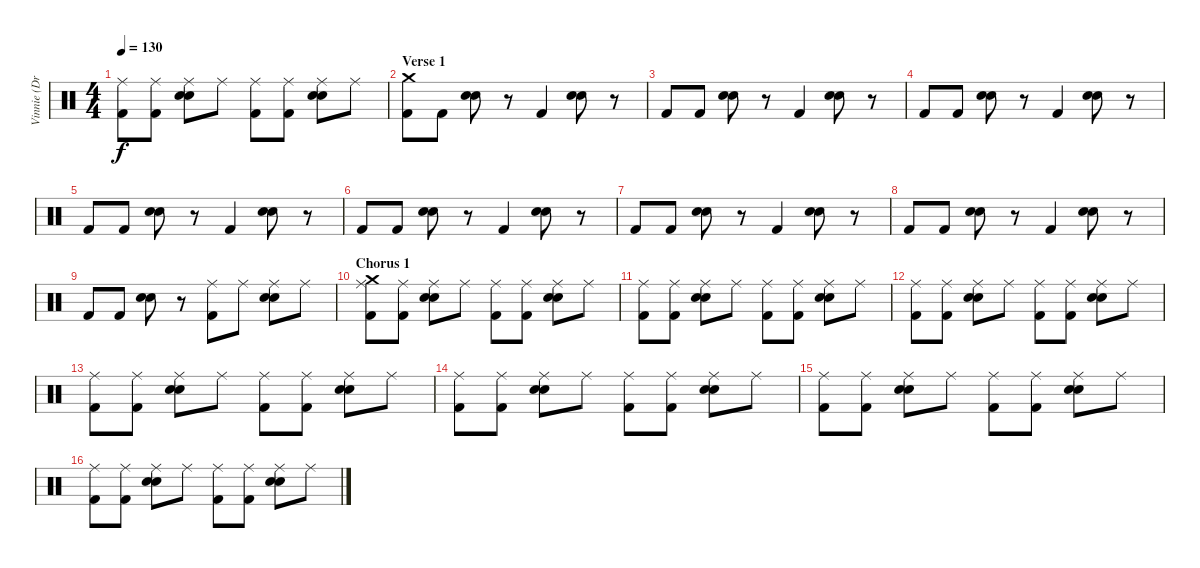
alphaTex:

\track ("Vinnie (Drums)" "Vinnie (Dr") {instrument percussion}
\staff {score}
\articulation defaults
\ts (4 4)
\tempo 130
\clef neutral
\ks c
("Kick (hit) 2" "Ride (middle)").8{dy f} ("Kick (hit) 2" "Ride (middle)").8 ("Snare (hit) 2" "Electric Snare (hit)" "Ride (middle)").8 "Ride (middle)".8 ("Kick (hit) 2" "Ride (middle)").8 ("Kick (hit) 2" "Ride (middle)").8 ("Snare (hit) 2" "Electric Snare (hit)" "Ride (middle)").8 "Ride (middle)".8 |
\section ("" "Verse 1")
("Kick (hit) 2" "Crash medium (hit)").8 "Kick (hit) 2".8 ("Snare (hit) 2" "Electric Snare (hit)").8 r.8 "Kick (hit) 2".4 ("Snare (hit) 2" "Electric Snare (hit)").8 r.8 |
"Kick (hit) 2".8 "Kick (hit) 2".8 ("Snare (hit) 2" "Electric Snare (hit)").8 r.8 "Kick (hit) 2".4 ("Snare (hit) 2" "Electric Snare (hit)").8 r.8 |
"Kick (hit) 2".8 "Kick (hit) 2".8 ("Snare (hit) 2" "Electric Snare (hit)").8 r.8 "Kick (hit) 2".4 ("Snare (hit) 2" "Electric Snare (hit)").8 r.8 |
"Kick (hit) 2".8 "Kick (hit) 2".8 ("Snare (hit) 2" "Electric Snare (hit)").8 r.8 "Kick (hit) 2".4 ("Snare (hit) 2" "Electric Snare (hit)").8 r.8 |
"Kick (hit) 2".8 "Kick (hit) 2".8 ("Snare (hit) 2" "Electric Snare (hit)").8 r.8 "Kick (hit) 2".4 ("Snare (hit) 2" "Electric Snare (hit)").8 r.8 |
"Kick (hit) 2".8 "Kick (hit) 2".8 ("Snare (hit) 2" "Electric Snare (hit)").8 r.8 "Kick (hit) 2".4 ("Snare (hit) 2" "Electric Snare (hit)").8 r.8 |
"Kick (hit) 2".8 "Kick (hit) 2".8 ("Snare (hit) 2" "Electric Snare (hit)").8 r.8 "Kick (hit) 2".4 ("Snare (hit) 2" "Electric Snare (hit)").8 r.8 |
"Kick (hit) 2".8 "Kick (hit) 2".8 ("Snare (hit) 2" "Electric Snare (hit)").8 r.8 ("Kick (hit) 2" "Ride (middle)").8 "Ride (middle)".8 ("Snare (hit) 2" "Electric Snare (hit)" "Ride (middle)").8 "Ride (middle)".8 |
\section ("" "Chorus 1")
("Kick (hit) 2" "Ride (middle)" "Crash medium (hit)").8 ("Kick (hit) 2" "Ride (middle)").8 ("Snare (hit) 2" "Electric Snare (hit)" "Ride (middle)").8 "Ride (middle)".8 ("Kick (hit) 2" "Ride (middle)").8 ("Kick (hit) 2" "Ride (middle)").8 ("Snare (hit) 2" "Electric Snare (hit)" "Ride (middle)").8 "Ride (middle)".8 |
("Kick (hit) 2" "Ride (middle)").8 ("Kick (hit) 2" "Ride (middle)").8 ("Snare (hit) 2" "Electric Snare (hit)" "Ride (middle)").8 "Ride (middle)".8 ("Kick (hit) 2" "Ride (middle)").8 ("Kick (hit) 2" "Ride (middle)").8 ("Snare (hit) 2" "Electric Snare (hit)" "Ride (middle)").8 "Ride (middle)".8 |
("Kick (hit) 2" "Ride (middle)").8 ("Kick (hit) 2" "Ride (middle)").8 ("Snare (hit) 2" "Electric Snare (hit)" "Ride (middle)").8 "Ride (middle)".8 ("Kick (hit) 2" "Ride (middle)").8 ("Kick (hit) 2" "Ride (middle)").8 ("Snare (hit) 2" "Electric Snare (hit)" "Ride (middle)").8 "Ride (middle)".8 |
("Kick (hit) 2" "Ride (middle)").8 ("Kick (hit) 2" "Ride (middle)").8 ("Snare (hit) 2" "Electric Snare (hit)" "Ride (middle)").8 "Ride (middle)".8 ("Kick (hit) 2" "Ride (middle)").8 ("Kick (hit) 2" "Ride (middle)").8 ("Snare (hit) 2" "Electric Snare (hit)" "Ride (middle)").8 "Ride (middle)".8 |
("Kick (hit) 2" "Ride (middle)").8 ("Kick (hit) 2" "Ride (middle)").8 ("Snare (hit) 2" "Electric Snare (hit)" "Ride (middle)").8 "Ride (middle)".8 ("Kick (hit) 2" "Ride (middle)").8 ("Kick (hit) 2" "Ride (middle)").8 ("Snare (hit) 2" "Electric Snare (hit)" "Ride (middle)").8 "Ride (middle)".8 |
("Kick (hit) 2" "Ride (middle)").8 ("Kick (hit) 2" "Ride (middle)").8 ("Snare (hit) 2" "Electric Snare (hit)" "Ride (middle)").8 "Ride (middle)".8 ("Kick (hit) 2" "Ride (middle)").8 ("Kick (hit) 2" "Ride (middle)").8 ("Snare (hit) 2" "Electric Snare (hit)" "Ride (middle)").8 "Ride (middle)".8 |
("Kick (hit) 2" "Ride (middle)").8 ("Kick (hit) 2" "Ride (middle)").8 ("Snare (hit) 2" "Electric Snare (hit)" "Ride (middle)").8 "Ride (middle)".8 ("Kick (hit) 2" "Ride (middle)").8 ("Kick (hit) 2" "Ride (middle)").8 ("Snare (hit) 2" "Electric Snare (hit)" "Ride (middle)").8 "Ride (middle)".8
